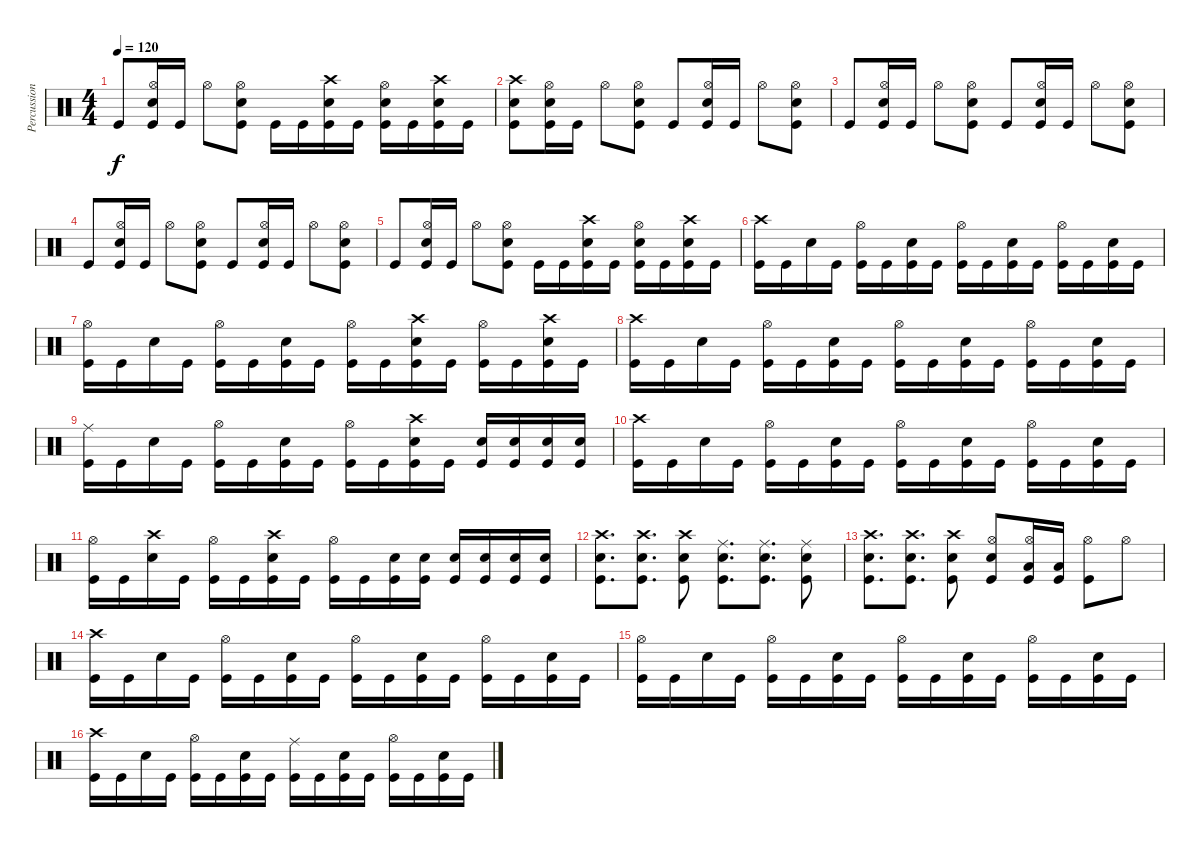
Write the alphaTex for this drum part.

\track ("Percussion" "Percussion") {instrument percussion}
\staff {score}
\articulation defaults
\ts (4 4)
\tempo 120
\clef neutral
\ks c "Kick (hit)".8{dy f}
("Kick (hit)" "Hi-Hat (open)" "Snare (hit) 2").16 "Kick (hit)".16 "Hi-Hat (open)".8 ("Kick (hit)" "Hi-Hat (open)" "Snare (hit) 2").8 "Kick (hit)".16 "Kick (hit)".16 ("Kick (hit)" "Crash high (hit)" "Snare (hit) 2").16 "Kick (hit)".16 ("Snare (hit) 2" "Hi-Hat (open)" "Kick (hit)").16 "Kick (hit)".16 ("Kick (hit)" "Crash high (hit)" "Snare (hit) 2").16 "Kick (hit)".16 |
("Kick (hit)" "Crash high (hit)" "Snare (hit) 2").8 ("Kick (hit)" "Hi-Hat (open)" "Snare (hit) 2").16 "Kick (hit)".16 "Hi-Hat (open)".8 ("Kick (hit)" "Hi-Hat (open)" "Snare (hit) 2").8 "Kick (hit)".8 ("Kick (hit)" "Hi-Hat (open)" "Snare (hit) 2").16 "Kick (hit)".16 "Hi-Hat (open)".8 ("Kick (hit)" "Hi-Hat (open)" "Snare (hit) 2").8 |
"Kick (hit)".8 ("Kick (hit)" "Hi-Hat (open)" "Snare (hit) 2").16 "Kick (hit)".16 "Hi-Hat (open)".8 ("Kick (hit)" "Hi-Hat (open)" "Snare (hit) 2").8 "Kick (hit)".8 ("Kick (hit)" "Hi-Hat (open)" "Snare (hit) 2").16 "Kick (hit)".16 "Hi-Hat (open)".8 ("Kick (hit)" "Hi-Hat (open)" "Snare (hit) 2").8 |
"Kick (hit)".8 ("Kick (hit)" "Hi-Hat (open)" "Snare (hit) 2").16 "Kick (hit)".16 "Hi-Hat (open)".8 ("Kick (hit)" "Hi-Hat (open)" "Snare (hit) 2").8 "Kick (hit)".8 ("Kick (hit)" "Hi-Hat (open)" "Snare (hit) 2").16 "Kick (hit)".16 "Hi-Hat (open)".8 ("Kick (hit)" "Hi-Hat (open)" "Snare (hit) 2").8 |
"Kick (hit)".8 ("Kick (hit)" "Hi-Hat (open)" "Snare (hit) 2").16 "Kick (hit)".16 "Hi-Hat (open)".8 ("Kick (hit)" "Hi-Hat (open)" "Snare (hit) 2").8 "Kick (hit)".16 "Kick (hit)".16 ("Kick (hit)" "Crash high (hit)" "Snare (hit) 2").16 "Kick (hit)".16 ("Snare (hit) 2" "Hi-Hat (open)" "Kick (hit)").16 "Kick (hit)".16 ("Kick (hit)" "Crash high (hit)" "Snare (hit) 2").16 "Kick (hit)".16 |
("Crash high (hit)" "Kick (hit)").16 "Kick (hit)".16 "Snare (hit) 2".16 "Kick (hit)".16 ("Kick (hit)" "Hi-Hat (open)").16 "Kick (hit)".16 ("Kick (hit)" "Snare (hit) 2").16 "Kick (hit)".16 ("Kick (hit)" "Hi-Hat (open)").16 "Kick (hit)".16 ("Kick (hit)" "Snare (hit) 2").16 "Kick (hit)".16 ("Kick (hit)" "Hi-Hat (open)").16 "Kick (hit)".16 ("Kick (hit)" "Snare (hit) 2").16 "Kick (hit)".16 |
("Hi-Hat (open)" "Kick (hit)").16 "Kick (hit)".16 "Snare (hit) 2".16 "Kick (hit)".16 ("Kick (hit)" "Hi-Hat (open)").16 "Kick (hit)".16 ("Kick (hit)" "Snare (hit) 2").16 "Kick (hit)".16 ("Kick (hit)" "Hi-Hat (open)").16 "Kick (hit)".16 ("Kick (hit)" "Snare (hit) 2" "Crash high (hit)").16 "Kick (hit)".16 ("Kick (hit)" "Hi-Hat (open)").16 "Kick (hit)".16 ("Kick (hit)" "Snare (hit) 2" "Crash high (hit)").16 "Kick (hit)".16 |
("Crash high (hit)" "Kick (hit)").16 "Kick (hit)".16 "Snare (hit) 2".16 "Kick (hit)".16 ("Kick (hit)" "Hi-Hat (open)").16 "Kick (hit)".16 ("Kick (hit)" "Snare (hit) 2").16 "Kick (hit)".16 ("Kick (hit)" "Hi-Hat (open)").16 "Kick (hit)".16 ("Kick (hit)" "Snare (hit) 2").16 "Kick (hit)".16 ("Kick (hit)" "Hi-Hat (open)").16 "Kick (hit)".16 ("Kick (hit)" "Snare (hit) 2").16 "Kick (hit)".16 |
("Ride (middle)" "Kick (hit)").16 "Kick (hit)".16 "Snare (hit) 2".16 "Kick (hit)".16 ("Kick (hit)" "Hi-Hat (open)").16 "Kick (hit)".16 ("Kick (hit)" "Snare (hit) 2").16 "Kick (hit)".16 ("Kick (hit)" "Hi-Hat (open)").16 "Kick (hit)".16 ("Kick (hit)" "Snare (hit) 2" "Crash high (hit)").16 "Kick (hit)".16 ("Kick (hit)" "Snare (hit) 2").16 ("Kick (hit)" "Snare (hit) 2").16 ("Kick (hit)" "Snare (hit) 2").16 ("Kick (hit)" "Snare (hit) 2").16 |
("Crash high (hit)" "Kick (hit)").16 "Kick (hit)".16 "Snare (hit) 2".16 "Kick (hit)".16 ("Kick (hit)" "Hi-Hat (open)").16 "Kick (hit)".16 ("Kick (hit)" "Snare (hit) 2").16 "Kick (hit)".16 ("Kick (hit)" "Hi-Hat (open)").16 "Kick (hit)".16 ("Kick (hit)" "Snare (hit) 2").16 "Kick (hit)".16 ("Kick (hit)" "Hi-Hat (open)").16 "Kick (hit)".16 ("Kick (hit)" "Snare (hit) 2").16 "Kick (hit)".16 |
("Hi-Hat (open)" "Kick (hit)").16 "Kick (hit)".16 ("Snare (hit) 2" "Crash high (hit)").16 "Kick (hit)".16 ("Kick (hit)" "Hi-Hat (open)").16 "Kick (hit)".16 ("Kick (hit)" "Snare (hit) 2" "Crash high (hit)").16 "Kick (hit)".16 ("Kick (hit)" "Hi-Hat (open)").16 "Kick (hit)".16 ("Kick (hit)" "Snare (hit) 2").16 ("Kick (hit)" "Snare (hit) 2").16 ("Kick (hit)" "Snare (hit) 2").16 ("Kick (hit)" "Snare (hit) 2").16 ("Kick (hit)" "Snare (hit) 2").16 ("Kick (hit)" "Snare (hit) 2").16 |
("Snare (hit) 2" "Kick (hit)" "Crash high (hit)").8{d} ("Snare (hit) 2" "Kick (hit)" "Crash high (hit)").8{d} ("Crash high (hit)" "Kick (hit)" "Snare (hit) 2").8 ("Snare (hit) 2" "Kick (hit)" "Ride (middle)").8{d} ("Ride (middle)" "Kick (hit)" "Snare (hit) 2").8{d} ("Snare (hit) 2" "Kick (hit)" "Ride (middle)").8 |
("Snare (hit) 2" "Kick (hit)" "Crash high (hit)").8{d} ("Snare (hit) 2" "Kick (hit)" "Crash high (hit)").8{d} ("Crash high (hit)" "Kick (hit)" "Snare (hit) 2").8 ("Snare (hit) 2" "Kick (hit)" "Hi-Hat (open)").8 ("Kick (hit)" "Low Tom (hit)" "Hi-Hat (open)").16 ("Kick (hit)" "Low Tom (hit)").16 ("Kick (hit)" "Hi-Hat (open)").8 "Hi-Hat (open)".8 |
("Crash high (hit)" "Kick (hit)").16 "Kick (hit)".16 "Snare (hit) 2".16 "Kick (hit)".16 ("Kick (hit)" "Hi-Hat (open)").16 "Kick (hit)".16 ("Kick (hit)" "Snare (hit) 2").16 "Kick (hit)".16 ("Kick (hit)" "Hi-Hat (open)").16 "Kick (hit)".16 ("Kick (hit)" "Snare (hit) 2").16 "Kick (hit)".16 ("Kick (hit)" "Hi-Hat (open)").16 "Kick (hit)".16 ("Kick (hit)" "Snare (hit) 2").16 "Kick (hit)".16 |
("Hi-Hat (open)" "Kick (hit)").16 "Kick (hit)".16 "Snare (hit) 2".16 "Kick (hit)".16 ("Kick (hit)" "Hi-Hat (open)").16 "Kick (hit)".16 ("Kick (hit)" "Snare (hit) 2").16 "Kick (hit)".16 ("Kick (hit)" "Hi-Hat (open)").16 "Kick (hit)".16 ("Kick (hit)" "Snare (hit) 2").16 "Kick (hit)".16 ("Kick (hit)" "Hi-Hat (open)").16 "Kick (hit)".16 ("Kick (hit)" "Snare (hit) 2").16 "Kick (hit)".16 |
("Crash high (hit)" "Kick (hit)").16 "Kick (hit)".16 "Snare (hit) 2".16 "Kick (hit)".16 ("Kick (hit)" "Hi-Hat (open)").16 "Kick (hit)".16 ("Kick (hit)" "Snare (hit) 2").16 "Kick (hit)".16 ("Kick (hit)" "Ride (middle)").16 "Kick (hit)".16 ("Kick (hit)" "Snare (hit) 2").16 "Kick (hit)".16 ("Kick (hit)" "Hi-Hat (open)").16 "Kick (hit)".16 ("Kick (hit)" "Snare (hit) 2").16 "Kick (hit)".16
